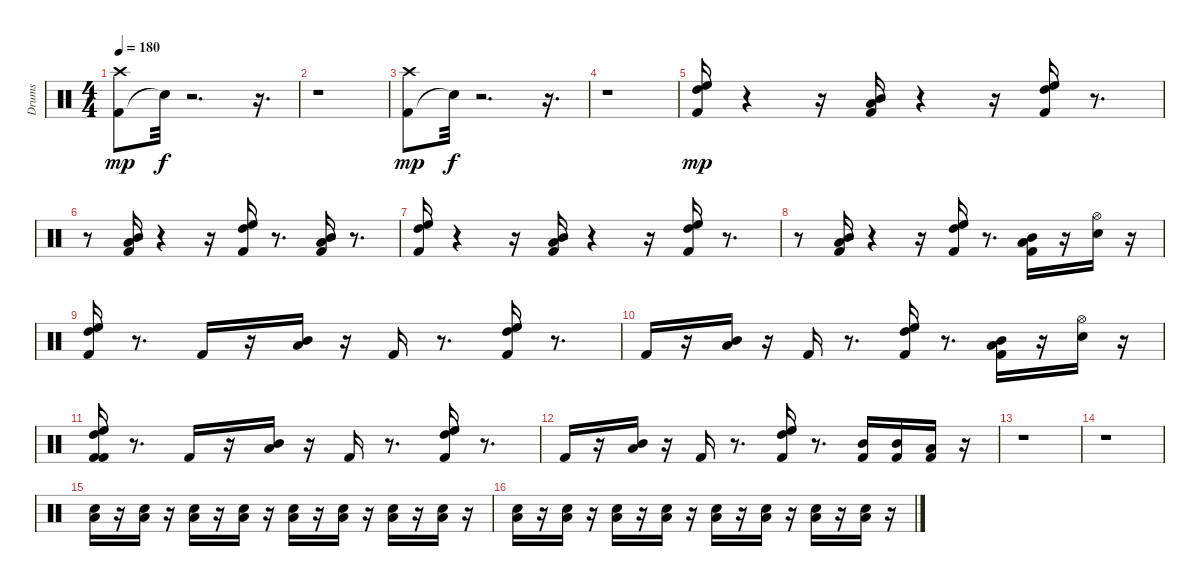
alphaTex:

\track ("Drums" "Drums") {instrument percussion}
\staff {score}
\articulation defaults
\ts (4 4)
\tempo 180
\clef neutral
\ks c
("Kick (hit) 2" "Crash high (hit)").8{dy mp} "Snare (hit)"{t}.32{dy f} r.2{d} r.16{d} |
r.1 |
("Kick (hit) 2" "Crash high (hit)").8{dy mp} "Snare (hit)"{t}.32{dy f} r.2{d} r.16{d} |
r.1 |
("High Floor Tom (hit)" "High Tom (hit)" "Kick (hit) 2").16{dy mp} r.4 r.16 ("Kick (hit) 2" "Mid Tom (hit)" "Low Tom (hit)").16 r.4 r.16 ("High Floor Tom (hit)" "High Tom (hit)" "Kick (hit) 2").16 r.8{d} |
r.8 ("Kick (hit) 2" "Low Tom (hit)" "Mid Tom (hit)").16 r.4 r.16 ("High Floor Tom (hit)" "High Tom (hit)" "Kick (hit) 2").16 r.8{d} ("Mid Tom (hit)" "Kick (hit) 2" "Low Tom (hit)").16 r.8{d} |
("Kick (hit) 2" "High Tom (hit)" "High Floor Tom (hit)").16 r.4 r.16 ("Mid Tom (hit)" "Low Tom (hit)" "Kick (hit) 2").16 r.4 r.16 ("Kick (hit) 2" "High Floor Tom (hit)" "High Tom (hit)").16 r.8{d} |
r.8 ("Mid Tom (hit)" "Kick (hit) 2" "Low Tom (hit)").16 r.4 r.16 ("High Floor Tom (hit)" "High Tom (hit)" "Kick (hit) 2").16 r.8{d} ("Kick (hit) 2" "Mid Tom (hit)" "Low Tom (hit)").16 r.16 ("Electric Snare (hit)" "Hi-Hat (open)").16 r.16 |
("High Floor Tom (hit)" "Kick (hit) 2" "High Tom (hit)").16 r.8{d} "Kick (hit) 2".16 r.16 ("Low Tom (hit)" "Mid Tom (hit)").16 r.16 "Kick (hit) 2".16 r.8{d} ("High Floor Tom (hit)" "Kick (hit) 2" "High Tom (hit)").16 r.8{d} |
"Kick (hit) 2".16 r.16 ("Low Tom (hit)" "Mid Tom (hit)").16 r.16 "Kick (hit) 2".16 r.8{d} ("High Floor Tom (hit)" "High Tom (hit)" "Kick (hit) 2").16 r.8{d} ("Low Tom (hit)" "Mid Tom (hit)" "Kick (hit) 2").16 r.16 ("Hi-Hat (open)" "Electric Snare (hit)").16 r.16 |
("High Floor Tom (hit)" "Kick (hit) 2" "Kick (hit) 2" "High Tom (hit)").16 r.8{d} "Kick (hit) 2".16 r.16 ("Mid Tom (hit)" "Low Tom (hit)").16 r.16 "Kick (hit) 2".16 r.8{d} ("Kick (hit) 2" "High Floor Tom (hit)" "High Tom (hit)").16 r.8{d} |
"Kick (hit) 2".16 r.16 ("Mid Tom (hit)" "Low Tom (hit)").16 r.16 "Kick (hit) 2".16 r.8{d} ("Kick (hit) 2" "High Floor Tom (hit)" "High Tom (hit)").16 r.8{d} ("Kick (hit) 2" "Mid Tom (hit)").16 ("Mid Tom (hit)" "Kick (hit) 2").16 ("Kick (hit) 2" "Low Tom (hit)").16 r.16 |
r.1 |
r.1 |
("Low Floor Tom (hit)" "Electric Snare (hit)").16 r.16 ("Electric Snare (hit)" "Low Floor Tom (hit)").16 r.16 ("Low Floor Tom (hit)" "Electric Snare (hit)").16 r.16 ("Electric Snare (hit)" "Low Floor Tom (hit)").16 r.16 ("Low Floor Tom (hit)" "Electric Snare (hit)").16 r.16 ("Electric Snare (hit)" "Low Floor Tom (hit)").16 r.16 ("Electric Snare (hit)" "Low Floor Tom (hit)").16 r.16 ("Low Floor Tom (hit)" "Electric Snare (hit)").16 r.16 |
("Low Floor Tom (hit)" "Electric Snare (hit)").16 r.16 ("Low Floor Tom (hit)" "Electric Snare (hit)").16 r.16 ("Low Floor Tom (hit)" "Electric Snare (hit)").16 r.16 ("Electric Snare (hit)" "Low Floor Tom (hit)").16 r.16 ("Electric Snare (hit)" "Low Floor Tom (hit)").16 r.16 ("Electric Snare (hit)" "Low Floor Tom (hit)").16 r.16 ("Electric Snare (hit)" "Low Floor Tom (hit)").16 r.16 ("Low Floor Tom (hit)" "Electric Snare (hit)").16 r.16
